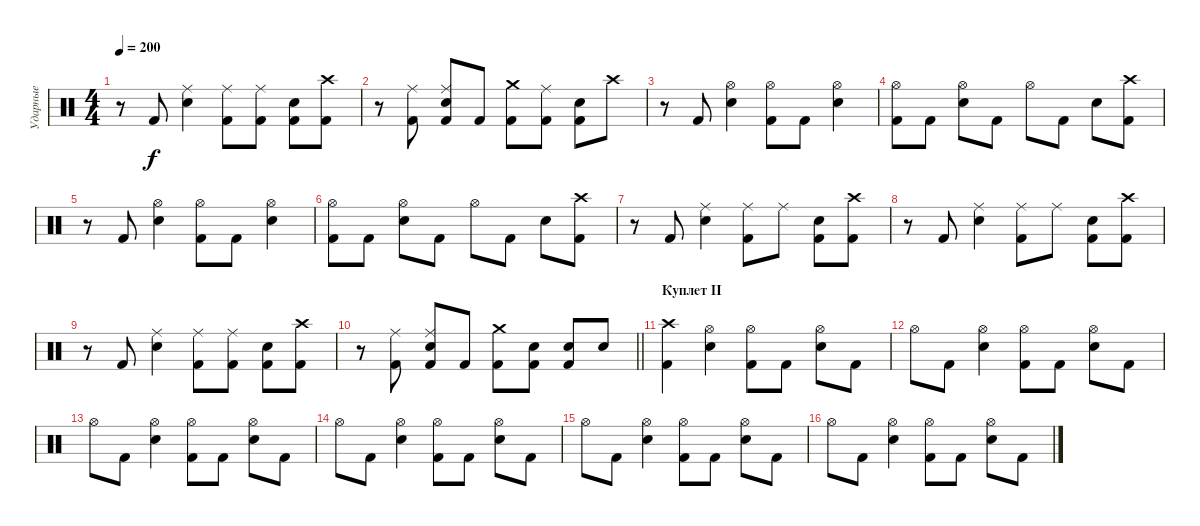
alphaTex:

\track ("Ударные" "Ударные") {instrument percussion}
\staff {score}
\articulation defaults
\ts (4 4)
\tempo 200
\clef neutral
\ks c
r.8{dy f} "Kick (hit) 2".8 ("Ride (middle)" "Electric Snare (hit)").4 ("Ride (middle)" "Kick (hit) 2").8 ("Ride (middle)" "Kick (hit) 2").8 ("Electric Snare (hit)" "Kick (hit) 2").8 ("Crash high (hit)" "Kick (hit) 2").8 |
r.8 ("Ride (middle)" "Kick (hit) 2").8 ("Ride (middle)" "Electric Snare (hit)" "Kick (hit) 2").8 "Kick (hit) 2".8 ("Crash medium (hit)" "Kick (hit) 2").8 ("Ride (middle)" "Kick (hit) 2").8 ("Electric Snare (hit)" "Kick (hit) 2").8 "Crash high (hit)".8 |
r.8 "Kick (hit) 2".8 ("Hi-Hat (open)" "Electric Snare (hit)").4 ("Hi-Hat (open)" "Kick (hit) 2").8 "Kick (hit) 2".8 ("Hi-Hat (open)" "Electric Snare (hit)").4 |
("Hi-Hat (open)" "Kick (hit) 2").8 "Kick (hit) 2".8 ("Hi-Hat (open)" "Electric Snare (hit)").8 "Kick (hit) 2".8 "Hi-Hat (open)".8 "Kick (hit) 2".8 "Electric Snare (hit)".8 ("Crash high (hit)" "Kick (hit) 2").8 |
r.8 "Kick (hit) 2".8 ("Hi-Hat (open)" "Electric Snare (hit)").4 ("Hi-Hat (open)" "Kick (hit) 2").8 "Kick (hit) 2".8 ("Hi-Hat (open)" "Electric Snare (hit)").4 |
("Hi-Hat (open)" "Kick (hit) 2").8 "Kick (hit) 2".8 ("Hi-Hat (open)" "Electric Snare (hit)").8 "Kick (hit) 2".8 "Hi-Hat (open)".8 "Kick (hit) 2".8 "Electric Snare (hit)".8 ("Crash high (hit)" "Kick (hit) 2").8 |
r.8 "Kick (hit) 2".8 ("Ride (middle)" "Electric Snare (hit)").4 ("Ride (middle)" "Kick (hit) 2").8 "Ride (middle)".8 ("Electric Snare (hit)" "Kick (hit) 2").8 ("Crash high (hit)" "Kick (hit) 2").8 |
r.8 "Kick (hit) 2".8 ("Ride (middle)" "Electric Snare (hit)").4 ("Ride (middle)" "Kick (hit) 2").8 "Ride (middle)".8 ("Electric Snare (hit)" "Kick (hit) 2").8 ("Crash high (hit)" "Kick (hit) 2").8 |
r.8 "Kick (hit) 2".8 ("Ride (middle)" "Electric Snare (hit)").4 ("Ride (middle)" "Kick (hit) 2").8 ("Ride (middle)" "Kick (hit) 2").8 ("Electric Snare (hit)" "Kick (hit) 2").8 ("Crash high (hit)" "Kick (hit) 2").8 |
\barLineRight lightlight
r.8 ("Ride (middle)" "Kick (hit) 2").8 ("Ride (middle)" "Electric Snare (hit)" "Kick (hit) 2").8 "Kick (hit) 2".8 ("Crash medium (hit)" "Kick (hit) 2").8 ("Electric Snare (hit)" "Kick (hit) 2").8 ("Electric Snare (hit)" "Kick (hit) 2").8 "Electric Snare (hit)".8 |
\section ("" "Куплет II")
("Crash high (hit)" "Kick (hit) 2").4 ("Hi-Hat (open)" "Electric Snare (hit)").4 ("Hi-Hat (open)" "Kick (hit) 2").8 "Kick (hit) 2".8 ("Hi-Hat (open)" "Electric Snare (hit)").8 "Kick (hit) 2".8 |
"Hi-Hat (open)".8 "Kick (hit) 2".8 ("Hi-Hat (open)" "Electric Snare (hit)").4 ("Hi-Hat (open)" "Kick (hit) 2").8 "Kick (hit) 2".8 ("Hi-Hat (open)" "Electric Snare (hit)").8 "Kick (hit) 2".8 |
"Hi-Hat (open)".8 "Kick (hit) 2".8 ("Hi-Hat (open)" "Electric Snare (hit)").4 ("Hi-Hat (open)" "Kick (hit) 2").8 "Kick (hit) 2".8 ("Hi-Hat (open)" "Electric Snare (hit)").8 "Kick (hit) 2".8 |
"Hi-Hat (open)".8 "Kick (hit) 2".8 ("Hi-Hat (open)" "Electric Snare (hit)").4 ("Hi-Hat (open)" "Kick (hit) 2").8 "Kick (hit) 2".8 ("Hi-Hat (open)" "Electric Snare (hit)").8 "Kick (hit) 2".8 |
"Hi-Hat (open)".8 "Kick (hit) 2".8 ("Hi-Hat (open)" "Electric Snare (hit)").4 ("Hi-Hat (open)" "Kick (hit) 2").8 "Kick (hit) 2".8 ("Hi-Hat (open)" "Electric Snare (hit)").8 "Kick (hit) 2".8 |
"Hi-Hat (open)".8 "Kick (hit) 2".8 ("Hi-Hat (open)" "Electric Snare (hit)").4 ("Hi-Hat (open)" "Kick (hit) 2").8 "Kick (hit) 2".8 ("Hi-Hat (open)" "Electric Snare (hit)").8 "Kick (hit) 2".8
